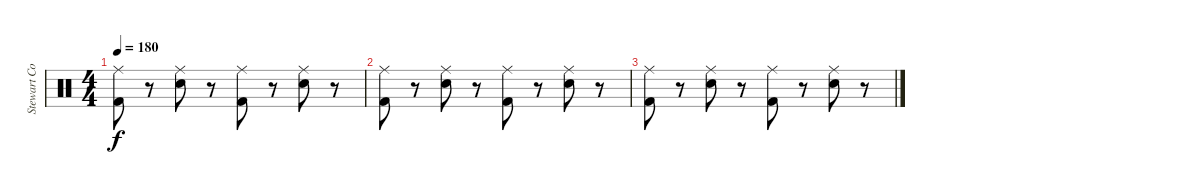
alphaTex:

\track ("Stewart Copeland" "Stewart Co") {instrument percussion}
\staff {score}
\articulation defaults
\ts (4 4)
\tempo 180
\clef neutral
\ks c
("Ride (middle)" "Kick (hit) 2").8{dy f} r.8 ("Ride (middle)" "Electric Snare (hit)").8 r.8 ("Ride (middle)" "Kick (hit) 2").8 r.8 ("Ride (middle)" "Electric Snare (hit)").8 r.8 |
("Ride (middle)" "Kick (hit) 2").8 r.8 ("Ride (middle)" "Electric Snare (hit)").8 r.8 ("Ride (middle)" "Kick (hit) 2").8 r.8 ("Ride (middle)" "Electric Snare (hit)").8 r.8 |
("Ride (middle)" "Kick (hit) 2").8 r.8 ("Ride (middle)" "Electric Snare (hit)").8 r.8 ("Ride (middle)" "Kick (hit) 2").8 r.8 ("Ride (middle)" "Electric Snare (hit)").8 r.8
